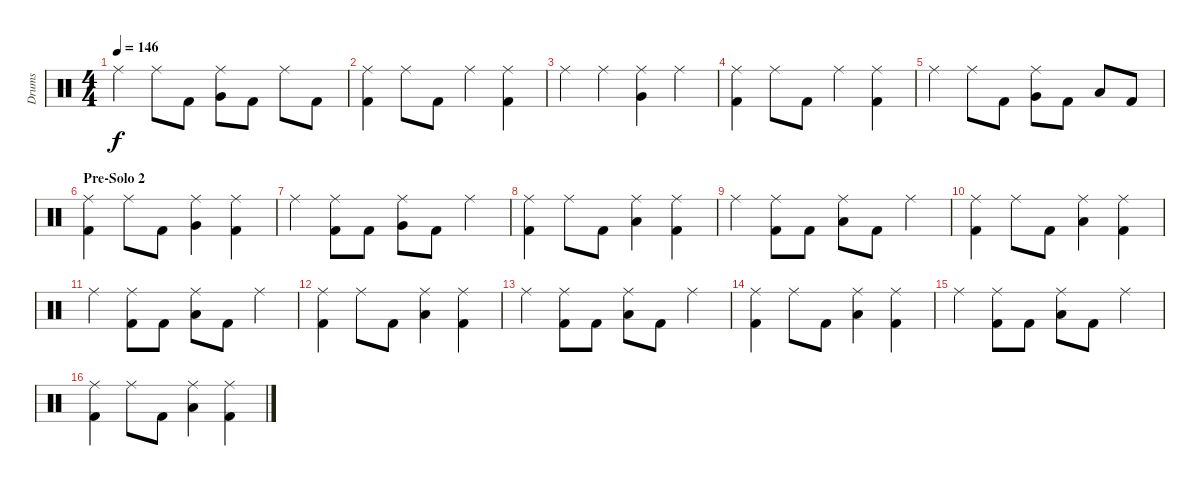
\track ("Drums" "Drums") {instrument percussion}
\staff {score}
\articulation defaults
\ts (4 4)
\tempo 146
\clef neutral
\ks c "Ride (middle)".4{dy f} "Ride (middle)".8 "Kick (hit) 2".8
("Ride (middle)" "Very Low Tom (hit)").8 "Kick (hit) 2".8 "Ride (middle)".8 "Kick (hit) 2".8 |
("Ride (middle)" "Kick (hit) 2").4 "Ride (middle)".8 "Kick (hit) 2".8 "Ride (middle)".4 ("Ride (middle)" "Kick (hit) 2").4 |
"Ride (middle)".4 "Ride (middle)".4 ("Ride (middle)" "Very Low Tom (hit)").4 "Ride (middle)".4 |
("Ride (middle)" "Kick (hit) 2").4 "Ride (middle)".8 "Kick (hit) 2".8 "Ride (middle)".4 ("Ride (middle)" "Kick (hit) 2").4 |
"Ride (middle)".4 "Ride (middle)".8 "Kick (hit) 2".8 ("Ride (middle)" "Very Low Tom (hit)").8 "Kick (hit) 2".8 "Low Tom (hit)".8 "Kick (hit) 2".8 |
\section ("" "Pre-Solo 2")
("Ride (middle)" "Kick (hit) 2").4 "Ride (middle)".8 "Kick (hit) 2".8 ("Ride (middle)" "Very Low Tom (hit)").4 ("Ride (middle)" "Kick (hit) 2").4 |
"Ride (middle)".4 ("Ride (middle)" "Kick (hit) 2").8 "Kick (hit) 2".8 ("Ride (middle)" "Very Low Tom (hit)").8 "Kick (hit) 2".8 "Ride (middle)".4 |
("Ride (middle)" "Kick (hit) 2").4 "Ride (middle)".8 "Kick (hit) 2".8 ("Ride (middle)" "Low Floor Tom (hit)").4 ("Ride (middle)" "Kick (hit) 2").4 |
"Ride (middle)".4 ("Ride (middle)" "Kick (hit) 2").8 "Kick (hit) 2".8 ("Ride (middle)" "Low Floor Tom (hit)").8 "Kick (hit) 2".8 "Ride (middle)".4 |
("Ride (middle)" "Kick (hit) 2").4 "Ride (middle)".8 "Kick (hit) 2".8 ("Ride (middle)" "Low Floor Tom (hit)").4 ("Ride (middle)" "Kick (hit) 2").4 |
"Ride (middle)".4 ("Ride (middle)" "Kick (hit) 2").8 "Kick (hit) 2".8 ("Ride (middle)" "Low Floor Tom (hit)").8 "Kick (hit) 2".8 "Ride (middle)".4 |
("Ride (middle)" "Kick (hit) 2").4 "Ride (middle)".8 "Kick (hit) 2".8 ("Ride (middle)" "Low Floor Tom (hit)").4 ("Ride (middle)" "Kick (hit) 2").4 |
"Ride (middle)".4 ("Ride (middle)" "Kick (hit) 2").8 "Kick (hit) 2".8 ("Ride (middle)" "Low Floor Tom (hit)").8 "Kick (hit) 2".8 "Ride (middle)".4 |
("Ride (middle)" "Kick (hit) 2").4 "Ride (middle)".8 "Kick (hit) 2".8 ("Ride (middle)" "Low Floor Tom (hit)").4 ("Ride (middle)" "Kick (hit) 2").4 |
"Ride (middle)".4 ("Ride (middle)" "Kick (hit) 2").8 "Kick (hit) 2".8 ("Ride (middle)" "Low Floor Tom (hit)").8 "Kick (hit) 2".8 "Ride (middle)".4 |
("Ride (middle)" "Kick (hit) 2").4 "Ride (middle)".8 "Kick (hit) 2".8 ("Ride (middle)" "Low Floor Tom (hit)").4 ("Ride (middle)" "Kick (hit) 2").4
